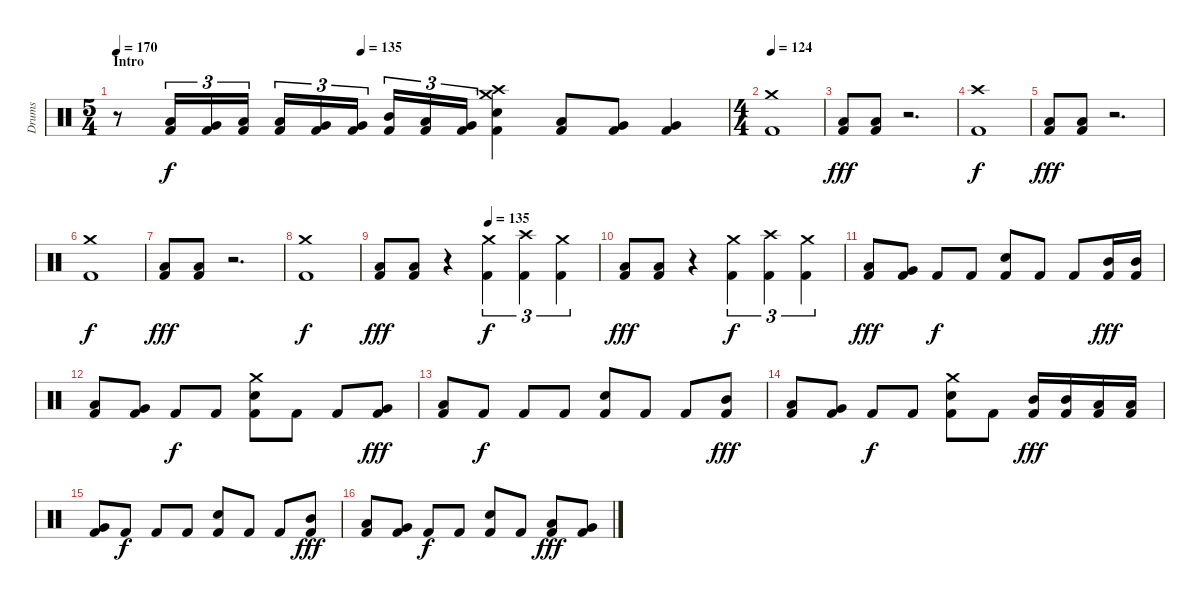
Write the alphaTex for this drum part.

\track ("Drums" "Drums") {instrument percussion}
\staff {score}
\articulation defaults
\ts (5 4)
\section ("" "Intro")
\tempo 170
\tempo 124
\tempo (135 0.4)
\tempo 170
\clef neutral
\ks c
r.8{dy f} ("Kick (hit) 2" "Low Tom (hit)").16{tu (3 2)} ("Kick (hit) 2" "Very Low Tom (hit)").16{tu (3 2)} ("Kick (hit) 2" "Low Tom (hit)").16{tu (3 2)} ("Kick (hit) 2" "Low Tom (hit)").16{tu (3 2)} ("Kick (hit) 2" "Very Low Tom (hit)").16{tu (3 2)} ("Kick (hit) 2" "Very Low Tom (hit)").16{tu (3 2) beam splitsecondary} ("Kick (hit) 2" "Mid Tom (hit)").16{tu (3 2)} ("Kick (hit) 2" "Low Tom (hit)").16{tu (3 2)} ("Kick (hit) 2" "Very Low Tom (hit)").16{tu (3 2)} ("Kick (hit) 2" "Electric Snare (hit)" "Crash medium (hit)" "Crash high (hit)").4 ("Kick (hit) 2" "Low Tom (hit)").8 ("Kick (hit) 2" "Very Low Tom (hit)").8 ("Kick (hit) 2" "Very Low Tom (hit)").4 |
\ts (4 4)
\tempo 124
("Kick (hit) 2" "Crash medium (hit)").1 |
("Kick (hit) 2" "Low Tom (hit)").8{dy fff} ("Kick (hit) 2" "Low Tom (hit)").8 r.2{d} |
("Kick (hit) 2" "Crash high (hit)").1{dy f} |
("Kick (hit) 2" "Low Tom (hit)").8{dy fff} ("Kick (hit) 2" "Low Tom (hit)").8 r.2{d} |
("Kick (hit) 2" "Crash medium (hit)").1{dy f} |
("Kick (hit) 2" "Low Tom (hit)").8{dy fff} ("Kick (hit) 2" "Low Tom (hit)").8 r.2{d} |
("Kick (hit) 2" "Crash medium (hit)").1{dy f} |
\tempo (135 0.5)
("Kick (hit) 2" "Low Tom (hit)").8{dy fff} ("Kick (hit) 2" "Low Tom (hit)").8 r.4 ("Kick (hit) 2" "Crash medium (hit)").4{tu (3 2) dy f} ("Kick (hit) 2" "Crash high (hit)").4{tu (3 2)} ("Kick (hit) 2" "Crash medium (hit)").4{tu (3 2)} |
("Kick (hit) 2" "Low Tom (hit)").8{dy fff} ("Kick (hit) 2" "Low Tom (hit)").8 r.4 ("Kick (hit) 2" "Crash medium (hit)").4{tu (3 2) dy f} ("Kick (hit) 2" "Crash high (hit)").4{tu (3 2)} ("Kick (hit) 2" "Crash medium (hit)").4{tu (3 2)} |
("Kick (hit) 2" "Low Tom (hit)").8{dy fff} ("Kick (hit) 2" "Very Low Tom (hit)").8 "Kick (hit) 2".8{dy f} "Kick (hit) 2".8 ("Kick (hit) 2" "Electric Snare (hit)").8 "Kick (hit) 2".8 "Kick (hit) 2".8 ("Kick (hit) 2" "Mid Tom (hit)").16{dy fff} ("Kick (hit) 2" "Mid Tom (hit)").16 |
("Kick (hit) 2" "Low Tom (hit)").8 ("Kick (hit) 2" "Very Low Tom (hit)").8 "Kick (hit) 2".8{dy f} "Kick (hit) 2".8 ("Kick (hit) 2" "Electric Snare (hit)" "Crash medium (hit)").8 "Kick (hit) 2".8 "Kick (hit) 2".8 ("Kick (hit) 2" "Very Low Tom (hit)").8{dy fff} |
("Kick (hit) 2" "Low Floor Tom (hit)").8 "Kick (hit) 2".8{dy f} "Kick (hit) 2".8 "Kick (hit) 2".8 ("Kick (hit) 2" "Electric Snare (hit)").8 "Kick (hit) 2".8 "Kick (hit) 2".8 ("Kick (hit) 2" "Mid Tom (hit)").8{dy fff} |
("Kick (hit) 2" "Low Tom (hit)").8 ("Kick (hit) 2" "Very Low Tom (hit)").8 "Kick (hit) 2".8{dy f} "Kick (hit) 2".8 ("Kick (hit) 2" "Electric Snare (hit)" "Crash medium (hit)").8 "Kick (hit) 2".8 ("Kick (hit) 2" "Mid Tom (hit)").16{dy fff} ("Kick (hit) 2" "Mid Tom (hit)").16 ("Kick (hit) 2" "Low Tom (hit)").16 ("Kick (hit) 2" "Low Tom (hit)").16 |
("Kick (hit) 2" "Very Low Tom (hit)").8 "Kick (hit) 2".8{dy f} "Kick (hit) 2".8 "Kick (hit) 2".8 ("Kick (hit) 2" "Electric Snare (hit)").8 "Kick (hit) 2".8 "Kick (hit) 2".8 ("Kick (hit) 2" "Mid Tom (hit)").8{dy fff} |
("Kick (hit) 2" "Low Tom (hit)").8 ("Kick (hit) 2" "Very Low Tom (hit)").8 "Kick (hit) 2".8{dy f} "Kick (hit) 2".8 ("Kick (hit) 2" "Electric Snare (hit)").8 "Kick (hit) 2".8 ("Kick (hit) 2" "Low Tom (hit)").8{dy fff} ("Kick (hit) 2" "Very Low Tom (hit)").8
